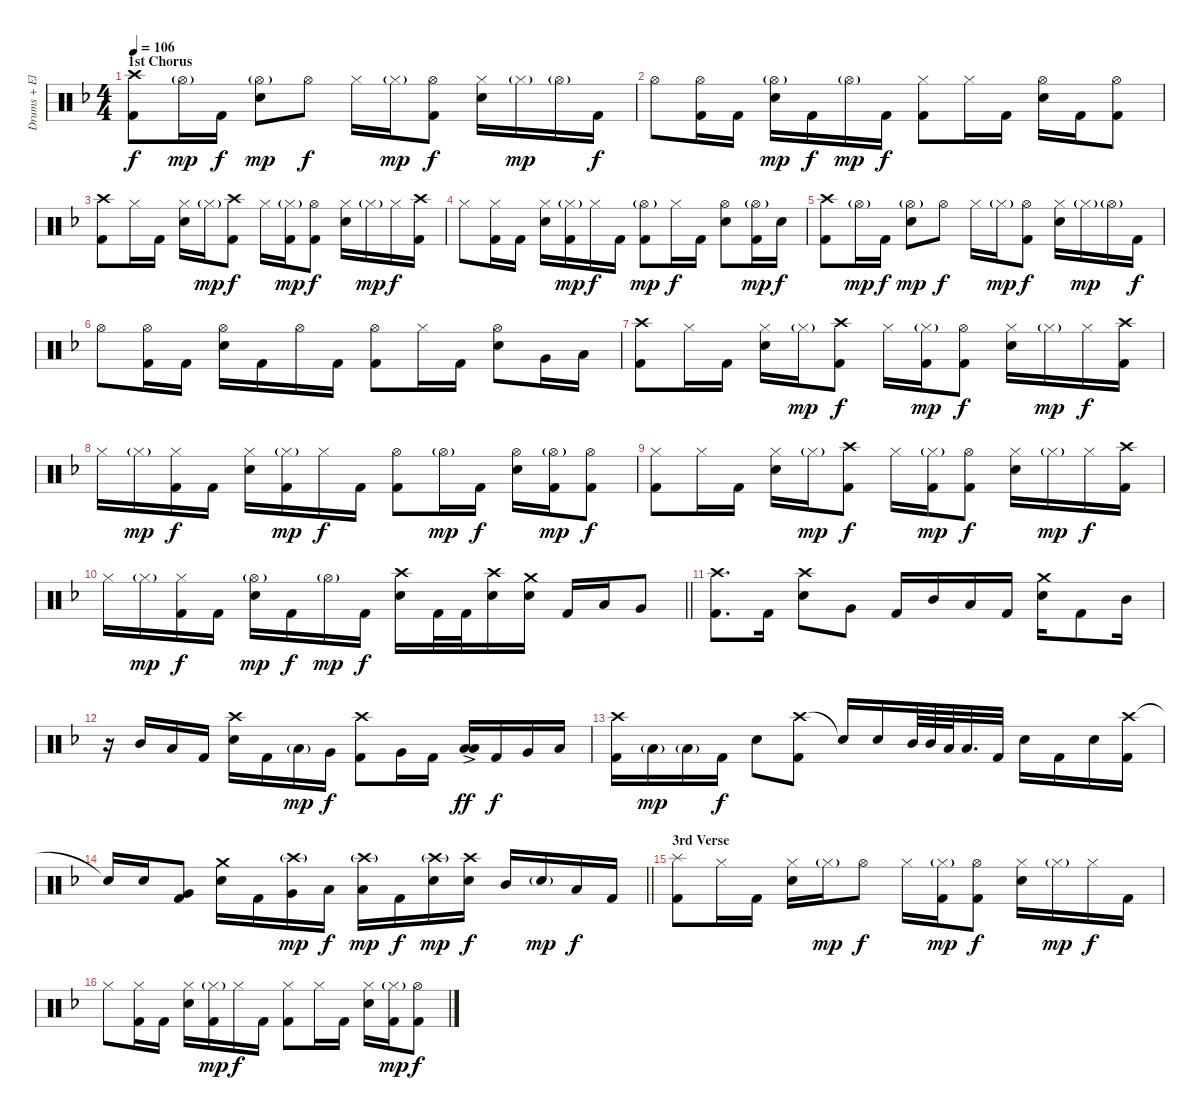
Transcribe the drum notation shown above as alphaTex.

\track ("Drums + Electronic drum pads" "Drums + El") {instrument percussion}
\staff {score}
\articulation defaults
\ts (4 4)
\section ("" "1st Chorus")
\tempo 106
\clef neutral
\ks dminor
("Crash high (hit)" "Kick (hit) 2").8{dy f} "Hi-Hat (open)"{g}.16{dy mp} "Kick (hit) 2".16{dy f} ("Hi-Hat (open)"{g} "Snare (hit) 2").8{dy mp} "Hi-Hat (open)".8{dy f} "Hi-Hat (closed)".16 "Hi-Hat (closed)"{g}.16{dy mp} ("Hi-Hat (open)" "Kick (hit) 2").8{dy f} ("Hi-Hat (closed)" "Snare (hit) 2").16 "Hi-Hat (closed)"{g}.16{dy mp} "Hi-Hat (open)"{g}.16 "Kick (hit) 2".16{dy f} |
"Hi-Hat (open)".8 ("Hi-Hat (open)" "Kick (hit) 2").16 "Kick (hit) 2".16 ("Hi-Hat (open)"{g} "Snare (hit) 2").16{dy mp} "Kick (hit) 2".16{dy f} "Hi-Hat (open)"{g}.16{dy mp} "Kick (hit) 2".16{dy f} ("Hi-Hat (closed)" "Kick (hit) 2").8 "Hi-Hat (closed)".16 "Kick (hit) 2".16 ("Hi-Hat (open)" "Snare (hit) 2").16 "Kick (hit) 2".16 ("Hi-Hat (open)" "Kick (hit) 2").8 |
("Crash high (hit)" "Kick (hit) 2").8 "Hi-Hat (closed)".16 "Kick (hit) 2".16 ("Hi-Hat (closed)" "Snare (hit) 2").16 "Hi-Hat (closed)"{g}.16{dy mp} ("Crash high (hit)" "Kick (hit) 2").8{dy f} "Hi-Hat (closed)".16 ("Hi-Hat (closed)"{g} "Kick (hit) 2").16{dy mp} ("Hi-Hat (open)" "Kick (hit) 2").8{dy f} ("Hi-Hat (closed)" "Snare (hit) 2").16 "Hi-Hat (closed)"{g}.16{dy mp} "Hi-Hat (closed)".16{dy f} ("Crash high (hit)" "Kick (hit) 2").16 |
"Hi-Hat (closed)".8 ("Hi-Hat (closed)" "Kick (hit) 2").16 "Kick (hit) 2".16 ("Hi-Hat (closed)" "Snare (hit) 2").16 ("Hi-Hat (closed)"{g} "Kick (hit) 2").16{dy mp} "Hi-Hat (closed)".16{dy f} "Kick (hit) 2".16 ("Hi-Hat (open)"{g} "Kick (hit) 2").8{dy mp} "Hi-Hat (closed)".16{dy f} "Kick (hit) 2".16 ("Hi-Hat (open)" "Snare (hit) 2").8 ("Hi-Hat (open)"{g} "Kick (hit) 2").16{dy mp} "Snare (hit) 2".16{dy f} |
("Crash high (hit)" "Kick (hit) 2").8 "Hi-Hat (open)"{g}.16{dy mp} "Kick (hit) 2".16{dy f} ("Hi-Hat (open)"{g} "Snare (hit) 2").8{dy mp} "Hi-Hat (open)".8{dy f} "Hi-Hat (closed)".16 "Hi-Hat (closed)"{g}.16{dy mp} ("Hi-Hat (open)" "Kick (hit) 2").8{dy f} ("Hi-Hat (closed)" "Snare (hit) 2").16 "Hi-Hat (closed)"{g}.16{dy mp} "Hi-Hat (open)"{g}.16 "Kick (hit) 2".16{dy f} |
"Hi-Hat (open)".8 ("Hi-Hat (open)" "Kick (hit) 2").16 "Kick (hit) 2".16 ("Hi-Hat (open)" "Snare (hit) 2").16 "Kick (hit) 2".16 "Hi-Hat (open)".16 "Kick (hit) 2".16 ("Hi-Hat (open)" "Kick (hit) 2").8 "Hi-Hat (closed)".16 "Kick (hit) 2".16 ("Hi-Hat (open)" "Snare (hit) 2").8 "Very Low Tom (hit)".16 "Low Floor Tom (hit)".16 |
("Crash high (hit)" "Kick (hit) 2").8 "Hi-Hat (closed)".16 "Kick (hit) 2".16 ("Hi-Hat (closed)" "Snare (hit) 2").16 "Hi-Hat (closed)"{g}.16{dy mp} ("Crash high (hit)" "Kick (hit) 2").8{dy f} "Hi-Hat (closed)".16 ("Hi-Hat (closed)"{g} "Kick (hit) 2").16{dy mp} ("Hi-Hat (open)" "Kick (hit) 2").8{dy f} ("Hi-Hat (closed)" "Snare (hit) 2").16 "Hi-Hat (closed)"{g}.16{dy mp} "Hi-Hat (closed)".16{dy f} ("Crash high (hit)" "Kick (hit) 2").16 |
"Hi-Hat (closed)".16 "Hi-Hat (closed)"{g}.16{dy mp} ("Hi-Hat (closed)" "Kick (hit) 2").16{dy f} "Kick (hit) 2".16 ("Hi-Hat (closed)" "Snare (hit) 2").16 ("Hi-Hat (closed)"{g} "Kick (hit) 2").16{dy mp} "Hi-Hat (closed)".16{dy f} "Kick (hit) 2".16 ("Hi-Hat (open)" "Kick (hit) 2").8 "Hi-Hat (open)"{g}.16{dy mp} "Kick (hit) 2".16{dy f} ("Hi-Hat (open)" "Snare (hit) 2").16 ("Hi-Hat (open)"{g} "Kick (hit) 2").16{dy mp} ("Hi-Hat (open)" "Kick (hit) 2").8{dy f} |
("Hi-Hat (closed)" "Kick (hit) 2").8 "Hi-Hat (closed)".16 "Kick (hit) 2".16 ("Hi-Hat (closed)" "Snare (hit) 2").16 "Hi-Hat (closed)"{g}.16{dy mp} ("Crash high (hit)" "Kick (hit) 2").8{dy f} "Hi-Hat (closed)".16 ("Hi-Hat (closed)"{g} "Kick (hit) 2").16{dy mp} ("Hi-Hat (open)" "Kick (hit) 2").8{dy f} ("Hi-Hat (closed)" "Snare (hit) 2").16 "Hi-Hat (closed)"{g}.16{dy mp} "Hi-Hat (closed)".16{dy f} ("Crash high (hit)" "Kick (hit) 2").16 |
\barLineRight lightlight "Hi-Hat (closed)".16 "Hi-Hat (closed)"{g}.16{dy mp}
("Hi-Hat (closed)" "Kick (hit) 2").16{dy f} "Kick (hit) 2".16 ("Hi-Hat (open)"{g} "Snare (hit) 2").16{dy mp} "Kick (hit) 2".16{dy f} "Hi-Hat (open)"{g}.16{dy mp} "Kick (hit) 2".16{dy f} ("Crash high (hit)" "Snare (hit) 2").16 "Kick (hit) 2".32 "Kick (hit) 2".32 ("Crash high (hit)" "Snare (hit) 2").16 ("Crash medium (hit)" "Snare (hit) 2").16 "Kick (hit) 2".16 "Low Tom (hit)".16 "Very Low Tom (hit)".8 |
\section ("" "")
("Crash high (hit)" "Kick (hit) 2").8{d} "Kick (hit) 2".16 ("Crash high (hit)" "Snare (hit) 2").8 "Very Low Tom (hit)".8 "Kick (hit) 2".16 "Mid Tom (hit)".16 "Low Tom (hit)".16 "Kick (hit) 2".16 ("Crash medium (hit)" "Snare (hit) 2").16 "Kick (hit) 2".8 "Mid Tom (hit)".16 |
r.16 "Mid Tom (hit)".16 "Low Tom (hit)".16 "Kick (hit) 2".16 ("Crash high (hit)" "Snare (hit) 2").16 "Kick (hit) 2".16 "Low Tom (hit)"{g}.16{dy mp} "Very Low Tom (hit)".16{dy f} ("Crash high (hit)" "Kick (hit) 2").8 "Very Low Tom (hit)".16 "Kick (hit) 2".16 ("Low Tom (hit)" "Low Floor Tom (hit)"{ac}).16{dy ff} "Kick (hit) 2".16{dy f} "Very Low Tom (hit)".16 "Low Floor Tom (hit)".16 |
("Crash high (hit)" "Kick (hit) 2").16 "Low Tom (hit)"{g}.16{dy mp} "Low Tom (hit)"{g}.16 "Kick (hit) 2".16{dy f} "Snare (hit) 2".8 ("Crash high (hit)" "Kick (hit) 2").8 "Snare (hit)"{t}.16 "Snare (hit) 2".16 "Mid Tom (hit)".64 "Mid Tom (hit)".64 "Low Tom (hit)".64 "Low Tom (hit)".32{d} "Kick (hit) 2".32 "Snare (hit) 2".16 "Kick (hit) 2".16 "Snare (hit) 2".16 ("Crash high (hit)" "Kick (hit) 2").16 |
\barLineRight lightlight "Snare (hit)"{t}.16 "Snare (hit) 2".16
("Very Low Tom (hit)" "Kick (hit) 2").8 ("Crash medium (hit)" "Snare (hit) 2").16 "Kick (hit) 2".16 ("Crash high (hit)"{g} "Very Low Tom (hit)").16{dy mp} "Low Tom (hit)".16{dy f} ("Crash high (hit)"{g} "Low Floor Tom (hit)").16{dy mp} "Kick (hit) 2".16{dy f} ("Crash high (hit)"{g} "Snare (hit) 2").16{dy mp} ("Crash high (hit)" "Snare (hit) 2").16{dy f} "Mid Tom (hit)".16 "Snare (hit) 2"{g}.16{dy mp} "Low Tom (hit)".16{dy f} "Kick (hit) 2".16 |
\section ("" "3rd Verse")
("Splash (hit)" "Kick (hit) 2").8 "Hi-Hat (closed)".16 "Kick (hit) 2".16 ("Hi-Hat (closed)" "Snare (hit) 2").16 "Hi-Hat (closed)"{g}.16{dy mp} "Hi-Hat (open)".8{dy f} "Hi-Hat (closed)".16 ("Hi-Hat (closed)"{g} "Kick (hit) 2").16{dy mp} ("Hi-Hat (open)" "Kick (hit) 2").8{dy f} ("Hi-Hat (closed)" "Snare (hit) 2").16 "Hi-Hat (closed)"{g}.16{dy mp} "Hi-Hat (closed)".16{dy f} "Kick (hit) 2".16 |
"Hi-Hat (closed)".8 ("Hi-Hat (closed)" "Kick (hit) 2").16 "Kick (hit) 2".16 ("Hi-Hat (closed)" "Snare (hit) 2").16 ("Hi-Hat (closed)"{g} "Kick (hit) 2").16{dy mp} "Hi-Hat (closed)".16{dy f} "Kick (hit) 2".16 ("Hi-Hat (closed)" "Kick (hit) 2").8 "Hi-Hat (closed)".16 "Kick (hit) 2".16 ("Hi-Hat (closed)" "Snare (hit) 2").16 ("Hi-Hat (closed)"{g} "Kick (hit) 2").16{dy mp} ("Hi-Hat (open)" "Kick (hit) 2").8{dy f}
